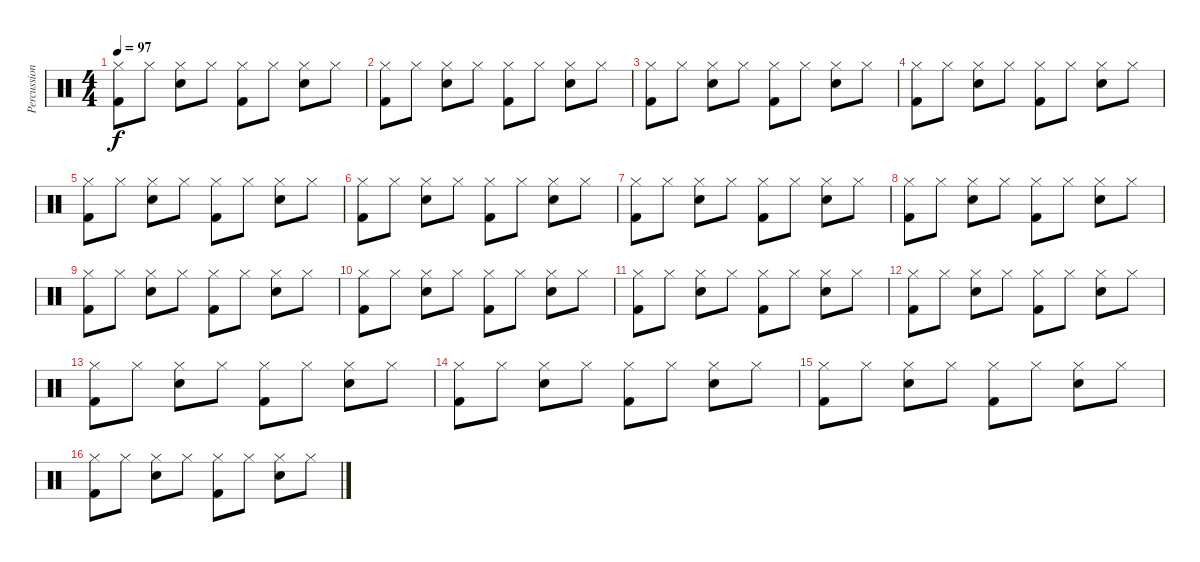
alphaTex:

\track ("Percussion" "Percussion") {instrument percussion}
\staff {score}
\articulation defaults
\ts (4 4)
\tempo 97
\clef neutral
\ks c
("Hi-Hat (closed)" "Kick (hit) 2").8{dy f} "Hi-Hat (closed)".8 ("Hi-Hat (closed)" "Snare (hit) 2").8 "Hi-Hat (closed)".8 ("Hi-Hat (closed)" "Kick (hit) 2").8 "Hi-Hat (closed)".8 ("Hi-Hat (closed)" "Snare (hit) 2").8 "Hi-Hat (closed)".8 |
("Hi-Hat (closed)" "Kick (hit) 2").8 "Hi-Hat (closed)".8 ("Hi-Hat (closed)" "Snare (hit) 2").8 "Hi-Hat (closed)".8 ("Hi-Hat (closed)" "Kick (hit) 2").8 "Hi-Hat (closed)".8 ("Hi-Hat (closed)" "Snare (hit) 2").8 "Hi-Hat (closed)".8 |
("Hi-Hat (closed)" "Kick (hit) 2").8 "Hi-Hat (closed)".8 ("Hi-Hat (closed)" "Snare (hit) 2").8 "Hi-Hat (closed)".8 ("Hi-Hat (closed)" "Kick (hit) 2").8 "Hi-Hat (closed)".8 ("Hi-Hat (closed)" "Snare (hit) 2").8 "Hi-Hat (closed)".8 |
("Hi-Hat (closed)" "Kick (hit) 2").8 "Hi-Hat (closed)".8 ("Hi-Hat (closed)" "Snare (hit) 2").8 "Hi-Hat (closed)".8 ("Hi-Hat (closed)" "Kick (hit) 2").8 "Hi-Hat (closed)".8 ("Hi-Hat (closed)" "Snare (hit) 2").8 "Hi-Hat (closed)".8 |
("Hi-Hat (closed)" "Kick (hit) 2").8 "Hi-Hat (closed)".8 ("Hi-Hat (closed)" "Snare (hit) 2").8 "Hi-Hat (closed)".8 ("Hi-Hat (closed)" "Kick (hit) 2").8 "Hi-Hat (closed)".8 ("Hi-Hat (closed)" "Snare (hit) 2").8 "Hi-Hat (closed)".8 |
("Hi-Hat (closed)" "Kick (hit) 2").8 "Hi-Hat (closed)".8 ("Hi-Hat (closed)" "Snare (hit) 2").8 "Hi-Hat (closed)".8 ("Hi-Hat (closed)" "Kick (hit) 2").8 "Hi-Hat (closed)".8 ("Hi-Hat (closed)" "Snare (hit) 2").8 "Hi-Hat (closed)".8 |
("Hi-Hat (closed)" "Kick (hit) 2").8 "Hi-Hat (closed)".8 ("Hi-Hat (closed)" "Snare (hit) 2").8 "Hi-Hat (closed)".8 ("Hi-Hat (closed)" "Kick (hit) 2").8 "Hi-Hat (closed)".8 ("Hi-Hat (closed)" "Snare (hit) 2").8 "Hi-Hat (closed)".8 |
("Hi-Hat (closed)" "Kick (hit) 2").8 "Hi-Hat (closed)".8 ("Hi-Hat (closed)" "Snare (hit) 2").8 "Hi-Hat (closed)".8 ("Hi-Hat (closed)" "Kick (hit) 2").8 "Hi-Hat (closed)".8 ("Hi-Hat (closed)" "Snare (hit) 2").8 "Hi-Hat (closed)".8 |
("Hi-Hat (closed)" "Kick (hit) 2").8 "Hi-Hat (closed)".8 ("Hi-Hat (closed)" "Snare (hit) 2").8 "Hi-Hat (closed)".8 ("Hi-Hat (closed)" "Kick (hit) 2").8 "Hi-Hat (closed)".8 ("Hi-Hat (closed)" "Snare (hit) 2").8 "Hi-Hat (closed)".8 |
("Hi-Hat (closed)" "Kick (hit) 2").8 "Hi-Hat (closed)".8 ("Hi-Hat (closed)" "Snare (hit) 2").8 "Hi-Hat (closed)".8 ("Hi-Hat (closed)" "Kick (hit) 2").8 "Hi-Hat (closed)".8 ("Hi-Hat (closed)" "Snare (hit) 2").8 "Hi-Hat (closed)".8 |
("Hi-Hat (closed)" "Kick (hit) 2").8 "Hi-Hat (closed)".8 ("Hi-Hat (closed)" "Snare (hit) 2").8 "Hi-Hat (closed)".8 ("Hi-Hat (closed)" "Kick (hit) 2").8 "Hi-Hat (closed)".8 ("Hi-Hat (closed)" "Snare (hit) 2").8 "Hi-Hat (closed)".8 |
("Hi-Hat (closed)" "Kick (hit) 2").8 "Hi-Hat (closed)".8 ("Hi-Hat (closed)" "Snare (hit) 2").8 "Hi-Hat (closed)".8 ("Hi-Hat (closed)" "Kick (hit) 2").8 "Hi-Hat (closed)".8 ("Hi-Hat (closed)" "Snare (hit) 2").8 "Hi-Hat (closed)".8 |
("Hi-Hat (closed)" "Kick (hit) 2").8 "Hi-Hat (closed)".8 ("Hi-Hat (closed)" "Snare (hit) 2").8 "Hi-Hat (closed)".8 ("Hi-Hat (closed)" "Kick (hit) 2").8 "Hi-Hat (closed)".8 ("Hi-Hat (closed)" "Snare (hit) 2").8 "Hi-Hat (closed)".8 |
("Hi-Hat (closed)" "Kick (hit) 2").8 "Hi-Hat (closed)".8 ("Hi-Hat (closed)" "Snare (hit) 2").8 "Hi-Hat (closed)".8 ("Hi-Hat (closed)" "Kick (hit) 2").8 "Hi-Hat (closed)".8 ("Hi-Hat (closed)" "Snare (hit) 2").8 "Hi-Hat (closed)".8 |
("Hi-Hat (closed)" "Kick (hit) 2").8 "Hi-Hat (closed)".8 ("Hi-Hat (closed)" "Snare (hit) 2").8 "Hi-Hat (closed)".8 ("Hi-Hat (closed)" "Kick (hit) 2").8 "Hi-Hat (closed)".8 ("Hi-Hat (closed)" "Snare (hit) 2").8 "Hi-Hat (closed)".8 |
("Hi-Hat (closed)" "Kick (hit) 2").8 "Hi-Hat (closed)".8 ("Hi-Hat (closed)" "Snare (hit) 2").8 "Hi-Hat (closed)".8 ("Hi-Hat (closed)" "Kick (hit) 2").8 "Hi-Hat (closed)".8 ("Hi-Hat (closed)" "Snare (hit) 2").8 "Hi-Hat (closed)".8
